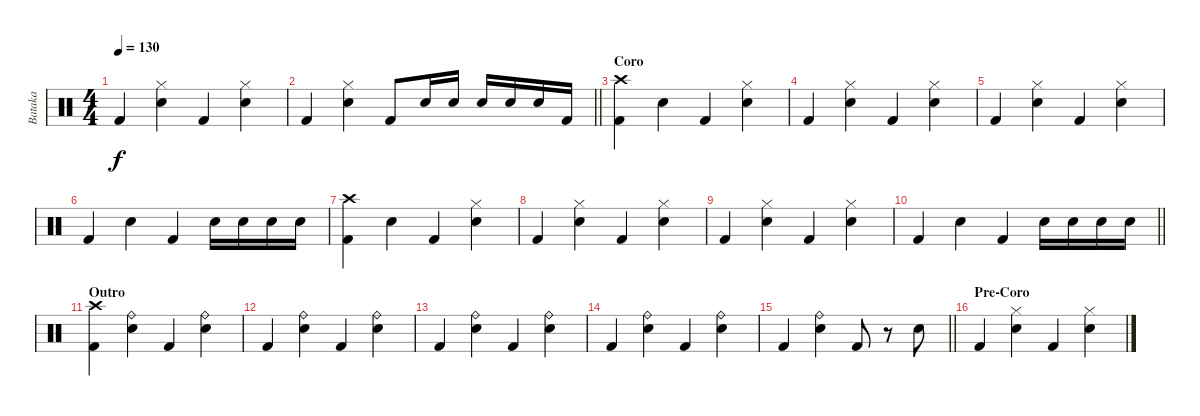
\track ("Bataka" "Bataka") {instrument percussion}
\staff {score}
\articulation defaults
\ts (4 4)
\tempo 130
\clef neutral
\ks c "Kick (hit) 2".4{dy f}
("Hi-Hat (closed)" "Snare (hit) 2").4 "Kick (hit) 2".4 ("Hi-Hat (closed)" "Snare (hit) 2").4 |
\barLineRight lightlight "Kick (hit) 2".4
("Hi-Hat (closed)" "Snare (hit) 2").4 "Kick (hit) 2".8 "Snare (hit) 2".16 "Snare (hit) 2".16 "Snare (hit) 2".16 "Snare (hit) 2".16 "Snare (hit) 2".16 "Kick (hit) 2".16 |
\section ("" "Coro")
("Crash high (hit)" "Kick (hit) 2").4 "Snare (hit) 2".4 "Kick (hit) 2".4 ("Hi-Hat (closed)" "Snare (hit) 2").4 |
"Kick (hit) 2".4 ("Hi-Hat (closed)" "Snare (hit) 2").4 "Kick (hit) 2".4 ("Hi-Hat (closed)" "Snare (hit) 2").4 |
"Kick (hit) 2".4 ("Hi-Hat (closed)" "Snare (hit) 2").4 "Kick (hit) 2".4 ("Hi-Hat (closed)" "Snare (hit) 2").4 |
"Kick (hit) 2".4 "Snare (hit) 2".4 "Kick (hit) 2".4 "Snare (hit) 2".16 "Snare (hit) 2".16 "Snare (hit) 2".16 "Snare (hit) 2".16 |
("Crash high (hit)" "Kick (hit) 2").4 "Snare (hit) 2".4 "Kick (hit) 2".4 ("Hi-Hat (closed)" "Snare (hit) 2").4 |
"Kick (hit) 2".4 ("Hi-Hat (closed)" "Snare (hit) 2").4 "Kick (hit) 2".4 ("Hi-Hat (closed)" "Snare (hit) 2").4 |
"Kick (hit) 2".4 ("Hi-Hat (closed)" "Snare (hit) 2").4 "Kick (hit) 2".4 ("Hi-Hat (closed)" "Snare (hit) 2").4 |
\barLineRight lightlight "Kick (hit) 2".4 "Snare (hit) 2".4 "Kick (hit) 2".4 "Snare (hit) 2".16 "Snare (hit) 2".16 "Snare (hit) 2".16 "Snare (hit) 2".16
|
\section ("" "Outro")
("Crash high (hit)" "Kick (hit) 2").4 ("Snare (hit) 2" "Ride (bell)").4 "Kick (hit) 2".4 ("Snare (hit) 2" "Ride (bell)").4 |
"Kick (hit) 2".4 ("Ride (bell)" "Snare (hit) 2").4 "Kick (hit) 2".4 ("Ride (bell)" "Snare (hit) 2").4 |
"Kick (hit) 2".4 ("Ride (bell)" "Snare (hit) 2").4 "Kick (hit) 2".4 ("Ride (bell)" "Snare (hit) 2").4 |
"Kick (hit) 2".4 ("Ride (bell)" "Snare (hit) 2").4 "Kick (hit) 2".4 ("Ride (bell)" "Snare (hit) 2").4 |
\barLineRight lightlight "Kick (hit) 2".4
("Ride (bell)" "Snare (hit) 2").4 "Kick (hit) 2".8 r.8 "Snare (hit) 2".8 |
\section ("" "Pre-Coro")
"Kick (hit) 2".4 ("Hi-Hat (closed)" "Snare (hit) 2").4 "Kick (hit) 2".4 ("Hi-Hat (closed)" "Snare (hit) 2").4
